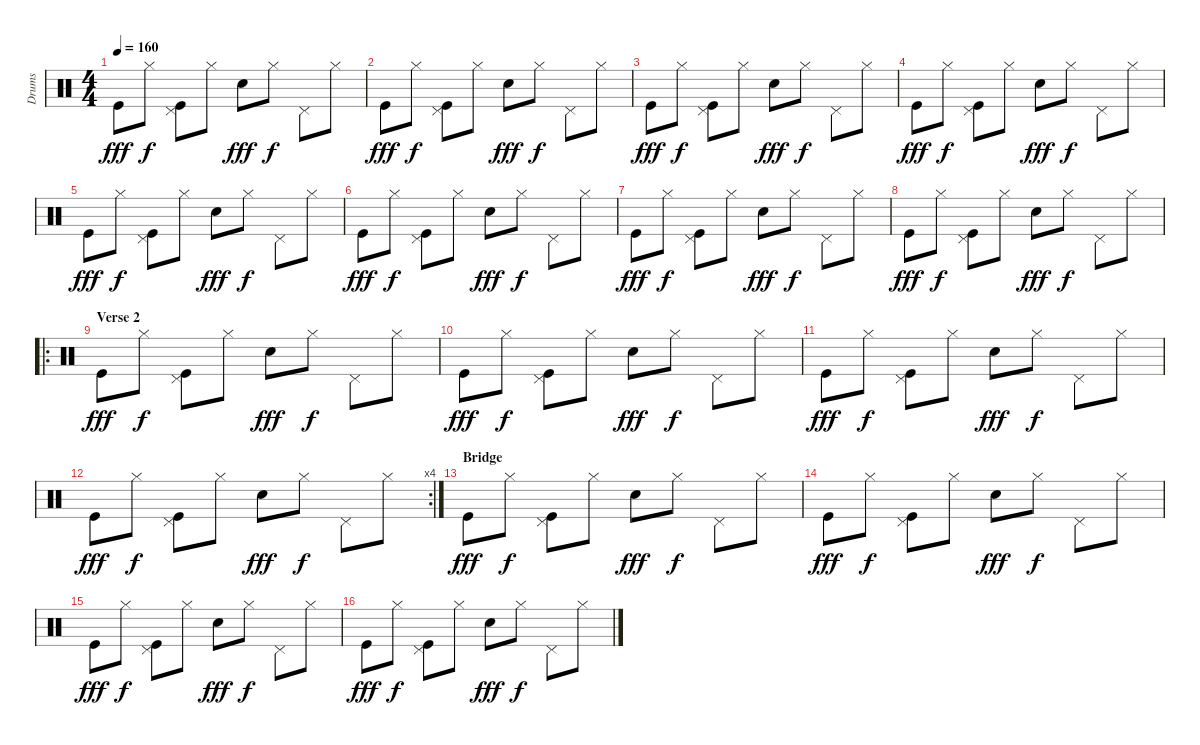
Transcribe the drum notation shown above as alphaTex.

\track ("Drums" "Drums") {instrument percussion}
\staff {score}
\articulation defaults
\ts (4 4)
\tempo 160
\clef neutral
\ks c "Kick (hit)".8{dy fff} "Hi-Hat (closed)".8{dy f}
("Kick (hit)" "Pedal Hi-Hat (hit)").8 "Hi-Hat (closed)".8 "Snare (hit) 2".8{dy fff} "Hi-Hat (closed)".8{dy f} "Pedal Hi-Hat (hit)".8 "Hi-Hat (closed)".8 |
"Kick (hit)".8{dy fff} "Hi-Hat (closed)".8{dy f} ("Kick (hit)" "Pedal Hi-Hat (hit)").8 "Hi-Hat (closed)".8 "Snare (hit) 2".8{dy fff} "Hi-Hat (closed)".8{dy f} "Pedal Hi-Hat (hit)".8 "Hi-Hat (closed)".8 |
"Kick (hit)".8{dy fff} "Hi-Hat (closed)".8{dy f} ("Kick (hit)" "Pedal Hi-Hat (hit)").8 "Hi-Hat (closed)".8 "Snare (hit) 2".8{dy fff} "Hi-Hat (closed)".8{dy f} "Pedal Hi-Hat (hit)".8 "Hi-Hat (closed)".8 |
"Kick (hit)".8{dy fff} "Hi-Hat (closed)".8{dy f} ("Kick (hit)" "Pedal Hi-Hat (hit)").8 "Hi-Hat (closed)".8 "Snare (hit) 2".8{dy fff} "Hi-Hat (closed)".8{dy f} "Pedal Hi-Hat (hit)".8 "Hi-Hat (closed)".8 |
"Kick (hit)".8{dy fff} "Hi-Hat (closed)".8{dy f} ("Kick (hit)" "Pedal Hi-Hat (hit)").8 "Hi-Hat (closed)".8 "Snare (hit) 2".8{dy fff} "Hi-Hat (closed)".8{dy f} "Pedal Hi-Hat (hit)".8 "Hi-Hat (closed)".8 |
"Kick (hit)".8{dy fff} "Hi-Hat (closed)".8{dy f} ("Kick (hit)" "Pedal Hi-Hat (hit)").8 "Hi-Hat (closed)".8 "Snare (hit) 2".8{dy fff} "Hi-Hat (closed)".8{dy f} "Pedal Hi-Hat (hit)".8 "Hi-Hat (closed)".8 |
"Kick (hit)".8{dy fff} "Hi-Hat (closed)".8{dy f} ("Kick (hit)" "Pedal Hi-Hat (hit)").8 "Hi-Hat (closed)".8 "Snare (hit) 2".8{dy fff} "Hi-Hat (closed)".8{dy f} "Pedal Hi-Hat (hit)".8 "Hi-Hat (closed)".8 |
"Kick (hit)".8{dy fff} "Hi-Hat (closed)".8{dy f} ("Kick (hit)" "Pedal Hi-Hat (hit)").8 "Hi-Hat (closed)".8 "Snare (hit) 2".8{dy fff} "Hi-Hat (closed)".8{dy f} "Pedal Hi-Hat (hit)".8 "Hi-Hat (closed)".8 |
\ro
\section ("" "Verse 2")
"Kick (hit)".8{dy fff} "Hi-Hat (closed)".8{dy f} ("Kick (hit)" "Pedal Hi-Hat (hit)").8 "Hi-Hat (closed)".8 "Snare (hit) 2".8{dy fff} "Hi-Hat (closed)".8{dy f} "Pedal Hi-Hat (hit)".8 "Hi-Hat (closed)".8 |
"Kick (hit)".8{dy fff} "Hi-Hat (closed)".8{dy f} ("Kick (hit)" "Pedal Hi-Hat (hit)").8 "Hi-Hat (closed)".8 "Snare (hit) 2".8{dy fff} "Hi-Hat (closed)".8{dy f} "Pedal Hi-Hat (hit)".8 "Hi-Hat (closed)".8 |
"Kick (hit)".8{dy fff} "Hi-Hat (closed)".8{dy f} ("Kick (hit)" "Pedal Hi-Hat (hit)").8 "Hi-Hat (closed)".8 "Snare (hit) 2".8{dy fff} "Hi-Hat (closed)".8{dy f} "Pedal Hi-Hat (hit)".8 "Hi-Hat (closed)".8 |
\rc 4 "Kick (hit)".8{dy fff} "Hi-Hat (closed)".8{dy f}
("Kick (hit)" "Pedal Hi-Hat (hit)").8 "Hi-Hat (closed)".8 "Snare (hit) 2".8{dy fff} "Hi-Hat (closed)".8{dy f} "Pedal Hi-Hat (hit)".8 "Hi-Hat (closed)".8 |
\section ("" "Bridge")
"Kick (hit)".8{dy fff} "Hi-Hat (closed)".8{dy f} ("Kick (hit)" "Pedal Hi-Hat (hit)").8 "Hi-Hat (closed)".8 "Snare (hit) 2".8{dy fff} "Hi-Hat (closed)".8{dy f} "Pedal Hi-Hat (hit)".8 "Hi-Hat (closed)".8 |
"Kick (hit)".8{dy fff} "Hi-Hat (closed)".8{dy f} ("Kick (hit)" "Pedal Hi-Hat (hit)").8 "Hi-Hat (closed)".8 "Snare (hit) 2".8{dy fff} "Hi-Hat (closed)".8{dy f} "Pedal Hi-Hat (hit)".8 "Hi-Hat (closed)".8 |
"Kick (hit)".8{dy fff} "Hi-Hat (closed)".8{dy f} ("Kick (hit)" "Pedal Hi-Hat (hit)").8 "Hi-Hat (closed)".8 "Snare (hit) 2".8{dy fff} "Hi-Hat (closed)".8{dy f} "Pedal Hi-Hat (hit)".8 "Hi-Hat (closed)".8 |
"Kick (hit)".8{dy fff} "Hi-Hat (closed)".8{dy f} ("Kick (hit)" "Pedal Hi-Hat (hit)").8 "Hi-Hat (closed)".8 "Snare (hit) 2".8{dy fff} "Hi-Hat (closed)".8{dy f} "Pedal Hi-Hat (hit)".8 "Hi-Hat (closed)".8
